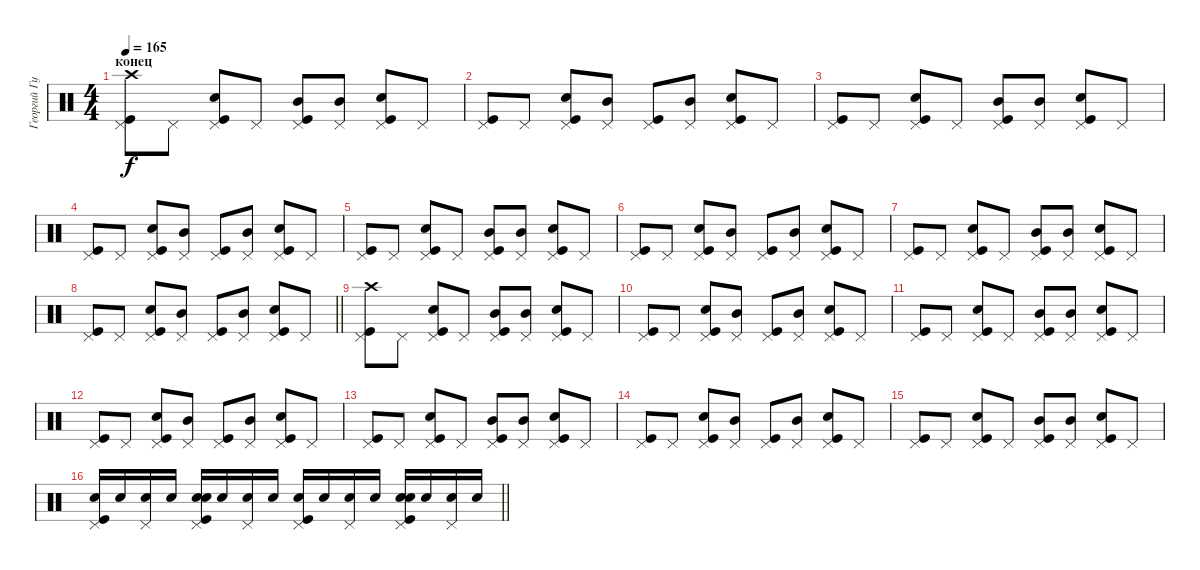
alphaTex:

\track ("Георгий Гурьянов" "Георгий Гу") {instrument percussion}
\staff {score}
\articulation defaults
\ts (4 4)
\section ("" "конец")
\tempo 165
\clef neutral
\ks c
("Pedal Hi-Hat (hit)" "Kick (hit)" "Crash high (hit)").8{dy f} "Pedal Hi-Hat (hit)".8 ("Pedal Hi-Hat (hit)" "Kick (hit)" "Snare (hit) 2").8 "Pedal Hi-Hat (hit)".8 ("Pedal Hi-Hat (hit)" "Kick (hit)" "Mid Tom (hit)").8 ("Pedal Hi-Hat (hit)" "Mid Tom (hit)").8 ("Pedal Hi-Hat (hit)" "Kick (hit)" "Snare (hit) 2").8 "Pedal Hi-Hat (hit)".8 |
("Pedal Hi-Hat (hit)" "Kick (hit)").8 "Pedal Hi-Hat (hit)".8 ("Pedal Hi-Hat (hit)" "Kick (hit)" "Snare (hit) 2").8 ("Pedal Hi-Hat (hit)" "Mid Tom (hit)").8 ("Pedal Hi-Hat (hit)" "Kick (hit)").8 ("Pedal Hi-Hat (hit)" "Mid Tom (hit)").8 ("Pedal Hi-Hat (hit)" "Kick (hit)" "Snare (hit) 2").8 "Pedal Hi-Hat (hit)".8 |
("Pedal Hi-Hat (hit)" "Kick (hit)").8 "Pedal Hi-Hat (hit)".8 ("Pedal Hi-Hat (hit)" "Kick (hit)" "Snare (hit) 2").8 "Pedal Hi-Hat (hit)".8 ("Pedal Hi-Hat (hit)" "Kick (hit)" "Mid Tom (hit)").8 ("Pedal Hi-Hat (hit)" "Mid Tom (hit)").8 ("Pedal Hi-Hat (hit)" "Kick (hit)" "Snare (hit) 2").8 "Pedal Hi-Hat (hit)".8 |
("Pedal Hi-Hat (hit)" "Kick (hit)").8 "Pedal Hi-Hat (hit)".8 ("Pedal Hi-Hat (hit)" "Kick (hit)" "Snare (hit) 2").8 ("Pedal Hi-Hat (hit)" "Mid Tom (hit)").8 ("Pedal Hi-Hat (hit)" "Kick (hit)").8 ("Pedal Hi-Hat (hit)" "Mid Tom (hit)").8 ("Pedal Hi-Hat (hit)" "Kick (hit)" "Snare (hit) 2").8 "Pedal Hi-Hat (hit)".8 |
("Pedal Hi-Hat (hit)" "Kick (hit)").8 "Pedal Hi-Hat (hit)".8 ("Pedal Hi-Hat (hit)" "Kick (hit)" "Snare (hit) 2").8 "Pedal Hi-Hat (hit)".8 ("Pedal Hi-Hat (hit)" "Kick (hit)" "Mid Tom (hit)").8 ("Pedal Hi-Hat (hit)" "Mid Tom (hit)").8 ("Pedal Hi-Hat (hit)" "Kick (hit)" "Snare (hit) 2").8 "Pedal Hi-Hat (hit)".8 |
("Pedal Hi-Hat (hit)" "Kick (hit)").8 "Pedal Hi-Hat (hit)".8 ("Pedal Hi-Hat (hit)" "Kick (hit)" "Snare (hit) 2").8 ("Pedal Hi-Hat (hit)" "Mid Tom (hit)").8 ("Pedal Hi-Hat (hit)" "Kick (hit)").8 ("Pedal Hi-Hat (hit)" "Mid Tom (hit)").8 ("Pedal Hi-Hat (hit)" "Kick (hit)" "Snare (hit) 2").8 "Pedal Hi-Hat (hit)".8 |
("Pedal Hi-Hat (hit)" "Kick (hit)").8 "Pedal Hi-Hat (hit)".8 ("Pedal Hi-Hat (hit)" "Kick (hit)" "Snare (hit) 2").8 "Pedal Hi-Hat (hit)".8 ("Pedal Hi-Hat (hit)" "Kick (hit)" "Mid Tom (hit)").8 ("Pedal Hi-Hat (hit)" "Mid Tom (hit)").8 ("Pedal Hi-Hat (hit)" "Kick (hit)" "Snare (hit) 2").8 "Pedal Hi-Hat (hit)".8 |
\barLineRight lightlight
("Pedal Hi-Hat (hit)" "Kick (hit)").8 "Pedal Hi-Hat (hit)".8 ("Pedal Hi-Hat (hit)" "Kick (hit)" "Snare (hit) 2").8 ("Pedal Hi-Hat (hit)" "Mid Tom (hit)").8 ("Pedal Hi-Hat (hit)" "Kick (hit)").8 ("Pedal Hi-Hat (hit)" "Mid Tom (hit)").8 ("Pedal Hi-Hat (hit)" "Kick (hit)" "Snare (hit) 2").8 "Pedal Hi-Hat (hit)".8 |
("Pedal Hi-Hat (hit)" "Kick (hit)" "Crash high (hit)").8 "Pedal Hi-Hat (hit)".8 ("Pedal Hi-Hat (hit)" "Kick (hit)" "Snare (hit) 2").8 "Pedal Hi-Hat (hit)".8 ("Pedal Hi-Hat (hit)" "Kick (hit)" "Mid Tom (hit)").8 ("Pedal Hi-Hat (hit)" "Mid Tom (hit)").8 ("Pedal Hi-Hat (hit)" "Kick (hit)" "Snare (hit) 2").8 "Pedal Hi-Hat (hit)".8 |
("Pedal Hi-Hat (hit)" "Kick (hit)").8 "Pedal Hi-Hat (hit)".8 ("Pedal Hi-Hat (hit)" "Kick (hit)" "Snare (hit) 2").8 ("Pedal Hi-Hat (hit)" "Mid Tom (hit)").8 ("Pedal Hi-Hat (hit)" "Kick (hit)").8 ("Pedal Hi-Hat (hit)" "Mid Tom (hit)").8 ("Pedal Hi-Hat (hit)" "Kick (hit)" "Snare (hit) 2").8 "Pedal Hi-Hat (hit)".8 |
("Pedal Hi-Hat (hit)" "Kick (hit)").8 "Pedal Hi-Hat (hit)".8 ("Pedal Hi-Hat (hit)" "Kick (hit)" "Snare (hit) 2").8 "Pedal Hi-Hat (hit)".8 ("Pedal Hi-Hat (hit)" "Kick (hit)" "Mid Tom (hit)").8 ("Pedal Hi-Hat (hit)" "Mid Tom (hit)").8 ("Pedal Hi-Hat (hit)" "Kick (hit)" "Snare (hit) 2").8 "Pedal Hi-Hat (hit)".8 |
("Pedal Hi-Hat (hit)" "Kick (hit)").8 "Pedal Hi-Hat (hit)".8 ("Pedal Hi-Hat (hit)" "Kick (hit)" "Snare (hit) 2").8 ("Pedal Hi-Hat (hit)" "Mid Tom (hit)").8 ("Pedal Hi-Hat (hit)" "Kick (hit)").8 ("Pedal Hi-Hat (hit)" "Mid Tom (hit)").8 ("Pedal Hi-Hat (hit)" "Kick (hit)" "Snare (hit) 2").8 "Pedal Hi-Hat (hit)".8 |
("Pedal Hi-Hat (hit)" "Kick (hit)").8 "Pedal Hi-Hat (hit)".8 ("Pedal Hi-Hat (hit)" "Kick (hit)" "Snare (hit) 2").8 "Pedal Hi-Hat (hit)".8 ("Pedal Hi-Hat (hit)" "Kick (hit)" "Mid Tom (hit)").8 ("Pedal Hi-Hat (hit)" "Mid Tom (hit)").8 ("Pedal Hi-Hat (hit)" "Kick (hit)" "Snare (hit) 2").8 "Pedal Hi-Hat (hit)".8 |
("Pedal Hi-Hat (hit)" "Kick (hit)").8 "Pedal Hi-Hat (hit)".8 ("Pedal Hi-Hat (hit)" "Kick (hit)" "Snare (hit) 2").8 ("Pedal Hi-Hat (hit)" "Mid Tom (hit)").8 ("Pedal Hi-Hat (hit)" "Kick (hit)").8 ("Pedal Hi-Hat (hit)" "Mid Tom (hit)").8 ("Pedal Hi-Hat (hit)" "Kick (hit)" "Snare (hit) 2").8 "Pedal Hi-Hat (hit)".8 |
("Pedal Hi-Hat (hit)" "Kick (hit)").8 "Pedal Hi-Hat (hit)".8 ("Pedal Hi-Hat (hit)" "Kick (hit)" "Snare (hit) 2").8 "Pedal Hi-Hat (hit)".8 ("Pedal Hi-Hat (hit)" "Kick (hit)" "Mid Tom (hit)").8 ("Pedal Hi-Hat (hit)" "Mid Tom (hit)").8 ("Pedal Hi-Hat (hit)" "Kick (hit)" "Snare (hit) 2").8 "Pedal Hi-Hat (hit)".8 |
\barLineRight lightlight
("Electric Snare (hit)" "Kick (hit)" "Pedal Hi-Hat (hit)").16 "Electric Snare (hit)".16 ("Electric Snare (hit)" "Pedal Hi-Hat (hit)").16 "Electric Snare (hit)".16 ("Electric Snare (hit)" "Kick (hit)" "Pedal Hi-Hat (hit)" "Snare (hit) 2").16 "Electric Snare (hit)".16 ("Electric Snare (hit)" "Pedal Hi-Hat (hit)").16 "Electric Snare (hit)".16 ("Electric Snare (hit)" "Kick (hit)" "Pedal Hi-Hat (hit)").16 "Electric Snare (hit)".16 ("Electric Snare (hit)" "Pedal Hi-Hat (hit)").16 "Electric Snare (hit)".16 ("Electric Snare (hit)" "Kick (hit)" "Pedal Hi-Hat (hit)" "Snare (hit) 2").16 "Electric Snare (hit)".16 ("Electric Snare (hit)" "Pedal Hi-Hat (hit)").16 "Electric Snare (hit)".16
